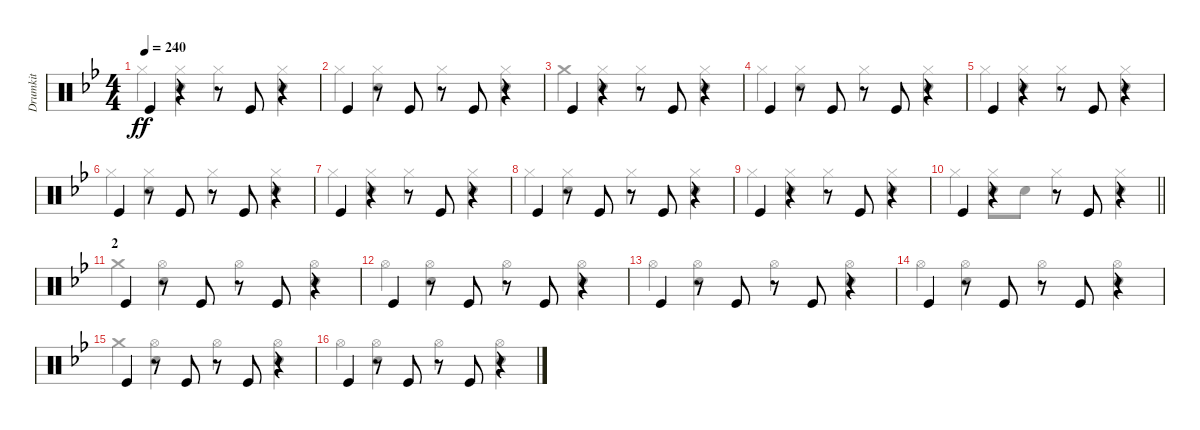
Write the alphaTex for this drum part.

\track ("Drumkit" "Drumkit") {instrument percussion}
\staff {score}
\articulation defaults
\voice
\ts (4 4)
\tempo 240
\clef neutral
\ks bb "Kick (hit)".4{dy ff}
r.4 r.8 "Kick (hit)".8 r.4 |
"Kick (hit)".4 r.8 "Kick (hit)".8 r.8 "Kick (hit)".8 r.4 |
"Kick (hit)".4 r.4 r.8 "Kick (hit)".8 r.4 |
"Kick (hit)".4 r.8 "Kick (hit)".8 r.8 "Kick (hit)".8 r.4 |
"Kick (hit)".4 r.4 r.8 "Kick (hit)".8 r.4 |
"Kick (hit)".4 r.8 "Kick (hit)".8 r.8 "Kick (hit)".8 r.4 |
"Kick (hit)".4 r.4 r.8 "Kick (hit)".8 r.4 |
"Kick (hit)".4 r.8 "Kick (hit)".8 r.8 "Kick (hit)".8 r.4 |
"Kick (hit)".4 r.4 r.8 "Kick (hit)".8 r.4 |
\barLineRight lightlight "Kick (hit)".4
r.4 r.8 "Kick (hit)".8 r.4 |
\section ("" "2")
"Kick (hit)".4 r.8 "Kick (hit)".8 r.8 "Kick (hit)".8 r.4 |
"Kick (hit)".4 r.8 "Kick (hit)".8 r.8 "Kick (hit)".8 r.4 |
"Kick (hit)".4 r.8 "Kick (hit)".8 r.8 "Kick (hit)".8 r.4 |
"Kick (hit)".4 r.8 "Kick (hit)".8 r.8 "Kick (hit)".8 r.4 |
"Kick (hit)".4 r.8 "Kick (hit)".8 r.8 "Kick (hit)".8 r.4 |
"Kick (hit)".4 r.8 "Kick (hit)".8 r.8 "Kick (hit)".8 r.4
\voice
\clef neutral
\ottava regular
\simile none
\ks bb "Hi-Hat (closed)".4{dy ff}
("Hi-Hat (closed)" "Snare (hit) 2").4 "Hi-Hat (closed)".4 ("Hi-Hat (closed)" "Snare (hit) 2").4 |
"Hi-Hat (closed)".4 ("Hi-Hat (closed)" "Snare (hit) 2").4 "Hi-Hat (closed)".4 ("Hi-Hat (closed)" "Snare (hit) 2").4 |
"Crash medium (hit)".4 ("Snare (hit) 2" "Hi-Hat (closed)").4 "Hi-Hat (closed)".4 ("Hi-Hat (closed)" "Snare (hit) 2").4 |
"Hi-Hat (closed)".4 ("Hi-Hat (closed)" "Snare (hit) 2").4 "Hi-Hat (closed)".4 ("Hi-Hat (closed)" "Snare (hit) 2").4 |
"Hi-Hat (closed)".4 ("Hi-Hat (closed)" "Snare (hit) 2").4 "Hi-Hat (closed)".4 ("Hi-Hat (closed)" "Snare (hit) 2").4 |
"Hi-Hat (closed)".4 ("Hi-Hat (closed)" "Snare (hit) 2").4 "Hi-Hat (closed)".4 ("Hi-Hat (closed)" "Snare (hit) 2").4 |
"Hi-Hat (closed)".4 ("Hi-Hat (closed)" "Snare (hit) 2").4 "Hi-Hat (closed)".4 ("Hi-Hat (closed)" "Snare (hit) 2").4 |
"Hi-Hat (closed)".4 ("Hi-Hat (closed)" "Snare (hit) 2").4 "Hi-Hat (closed)".4 ("Hi-Hat (closed)" "Snare (hit) 2").4 |
"Hi-Hat (closed)".4 ("Hi-Hat (closed)" "Snare (hit) 2").4 "Hi-Hat (closed)".4 ("Hi-Hat (closed)" "Snare (hit) 2").4 |
\barLineRight lightlight "Hi-Hat (closed)".4
("Hi-Hat (closed)" "Snare (hit) 2").8 "Snare (hit) 2".8 "Hi-Hat (closed)".4 ("Snare (hit) 2" "Hi-Hat (closed)").4 |
"Crash medium (hit)".4 ("Hi-Hat (open)" "Snare (hit) 2").4 "Hi-Hat (open)".4 ("Hi-Hat (open)" "Snare (hit) 2").4 |
"Hi-Hat (open)".4 ("Hi-Hat (open)" "Snare (hit) 2").4 "Hi-Hat (open)".4 ("Hi-Hat (open)" "Snare (hit) 2").4 |
"Hi-Hat (open)".4 ("Hi-Hat (open)" "Snare (hit) 2").4 "Hi-Hat (open)".4 ("Hi-Hat (open)" "Snare (hit) 2").4 |
"Hi-Hat (open)".4 ("Hi-Hat (open)" "Snare (hit) 2").4 "Hi-Hat (open)".4 ("Hi-Hat (open)" "Snare (hit) 2").4 |
"Crash medium (hit)".4 ("Hi-Hat (open)" "Snare (hit) 2").4 "Hi-Hat (open)".4 ("Hi-Hat (open)" "Snare (hit) 2").4 |
"Hi-Hat (open)".4 ("Hi-Hat (open)" "Snare (hit) 2").4 "Hi-Hat (open)".4 ("Hi-Hat (open)" "Snare (hit) 2").4
